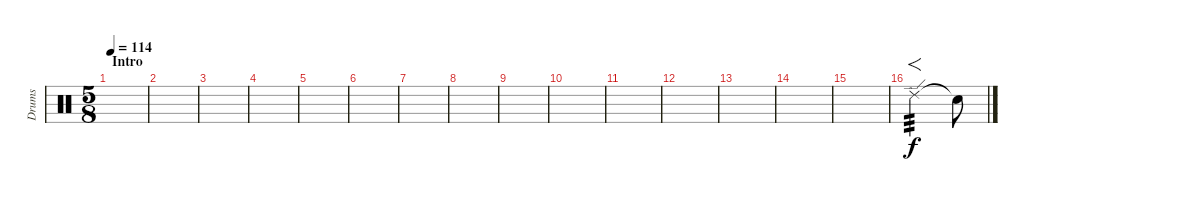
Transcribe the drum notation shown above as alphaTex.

\track ("Drums" "Drums") {instrument percussion}
\staff {score}
\articulation defaults
\ts (5 8)
\section ("" "Intro")
\tempo 114
\clef neutral
\ks c
|
|
|
|
|
|
|
|
|
|
|
|
|
|
|
"Ride (edge) 2".2{f tp 3} "Snare (hit)"{t}.8
